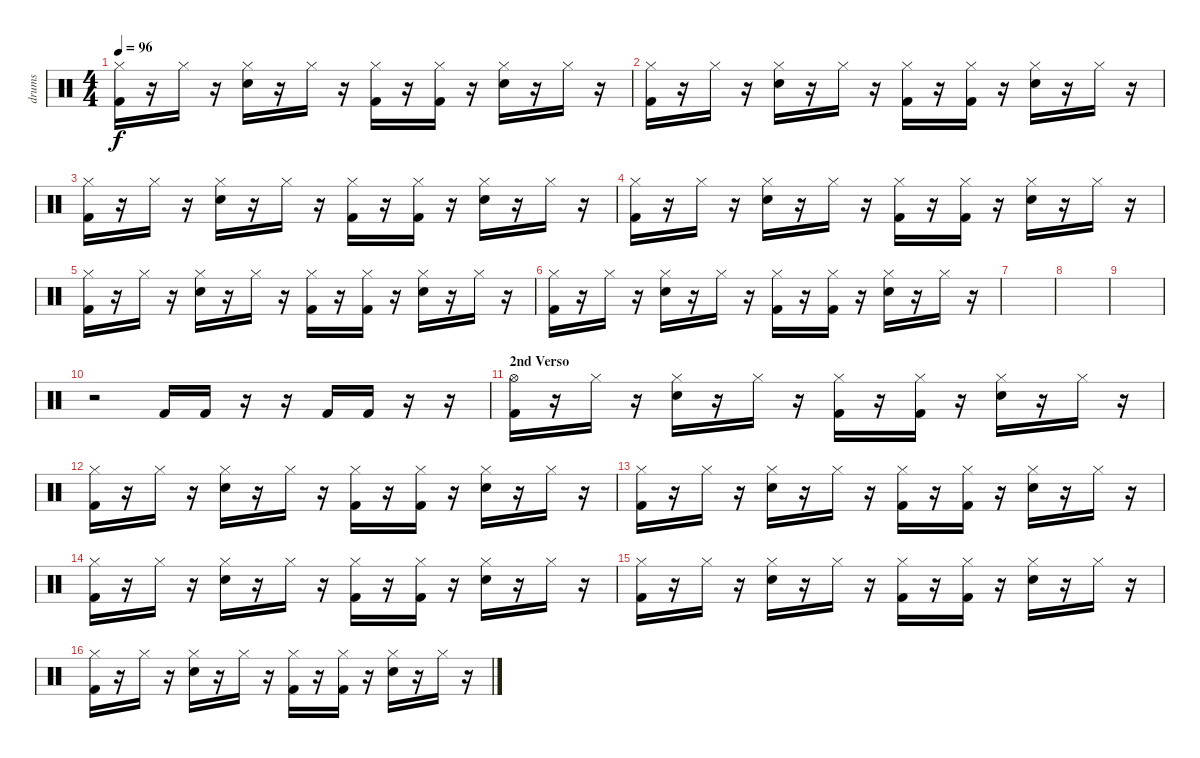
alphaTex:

\track ("drums" "drums") {instrument percussion}
\staff {score}
\articulation defaults
\ts (4 4)
\tempo 96
\clef neutral
\ks c
("Kick (hit) 2" "Hi-Hat (closed)").16{dy f} r.16 "Hi-Hat (closed)".16 r.16 ("Hi-Hat (closed)" "Electric Snare (hit)").16 r.16 "Hi-Hat (closed)".16 r.16 ("Kick (hit) 2" "Hi-Hat (closed)").16 r.16 ("Kick (hit) 2" "Hi-Hat (closed)").16 r.16 ("Hi-Hat (closed)" "Electric Snare (hit)").16 r.16 "Hi-Hat (closed)".16 r.16 |
("Kick (hit) 2" "Hi-Hat (closed)").16 r.16 "Hi-Hat (closed)".16 r.16 ("Hi-Hat (closed)" "Electric Snare (hit)").16 r.16 "Hi-Hat (closed)".16 r.16 ("Kick (hit) 2" "Hi-Hat (closed)").16 r.16 ("Kick (hit) 2" "Hi-Hat (closed)").16 r.16 ("Hi-Hat (closed)" "Electric Snare (hit)").16 r.16 "Hi-Hat (closed)".16 r.16 |
("Kick (hit) 2" "Hi-Hat (closed)").16 r.16 "Hi-Hat (closed)".16 r.16 ("Hi-Hat (closed)" "Electric Snare (hit)").16 r.16 "Hi-Hat (closed)".16 r.16 ("Kick (hit) 2" "Hi-Hat (closed)").16 r.16 ("Kick (hit) 2" "Hi-Hat (closed)").16 r.16 ("Hi-Hat (closed)" "Electric Snare (hit)").16 r.16 "Hi-Hat (closed)".16 r.16 |
("Kick (hit) 2" "Hi-Hat (closed)").16 r.16 "Hi-Hat (closed)".16 r.16 ("Hi-Hat (closed)" "Electric Snare (hit)").16 r.16 "Hi-Hat (closed)".16 r.16 ("Kick (hit) 2" "Hi-Hat (closed)").16 r.16 ("Kick (hit) 2" "Hi-Hat (closed)").16 r.16 ("Hi-Hat (closed)" "Electric Snare (hit)").16 r.16 "Hi-Hat (closed)".16 r.16 |
("Kick (hit) 2" "Hi-Hat (closed)").16 r.16 "Hi-Hat (closed)".16 r.16 ("Hi-Hat (closed)" "Electric Snare (hit)").16 r.16 "Hi-Hat (closed)".16 r.16 ("Kick (hit) 2" "Hi-Hat (closed)").16 r.16 ("Kick (hit) 2" "Hi-Hat (closed)").16 r.16 ("Hi-Hat (closed)" "Electric Snare (hit)").16 r.16 "Hi-Hat (closed)".16 r.16 |
("Kick (hit) 2" "Hi-Hat (closed)").16 r.16 "Hi-Hat (closed)".16 r.16 ("Hi-Hat (closed)" "Electric Snare (hit)").16 r.16 "Hi-Hat (closed)".16 r.16 ("Kick (hit) 2" "Hi-Hat (closed)").16 r.16 ("Kick (hit) 2" "Hi-Hat (closed)").16 r.16 ("Hi-Hat (closed)" "Electric Snare (hit)").16 r.16 "Hi-Hat (closed)".16 r.16 |
|
|
|
r.2 "Kick (hit) 2".16 "Kick (hit) 2".16 r.16 r.16 "Kick (hit) 2".16 "Kick (hit) 2".16 r.16 r.16 |
\section ("" "2nd Verso")
("Kick (hit) 2" "Hi-Hat (open)").16 r.16 "Hi-Hat (closed)".16 r.16 ("Hi-Hat (closed)" "Electric Snare (hit)").16 r.16 "Hi-Hat (closed)".16 r.16 ("Kick (hit) 2" "Hi-Hat (closed)").16 r.16 ("Kick (hit) 2" "Hi-Hat (closed)").16 r.16 ("Hi-Hat (closed)" "Electric Snare (hit)").16 r.16 "Hi-Hat (closed)".16 r.16 |
("Kick (hit) 2" "Hi-Hat (closed)").16 r.16 "Hi-Hat (closed)".16 r.16 ("Hi-Hat (closed)" "Electric Snare (hit)").16 r.16 "Hi-Hat (closed)".16 r.16 ("Kick (hit) 2" "Hi-Hat (closed)").16 r.16 ("Kick (hit) 2" "Hi-Hat (closed)").16 r.16 ("Hi-Hat (closed)" "Electric Snare (hit)").16 r.16 "Hi-Hat (closed)".16 r.16 |
("Kick (hit) 2" "Hi-Hat (closed)").16 r.16 "Hi-Hat (closed)".16 r.16 ("Hi-Hat (closed)" "Electric Snare (hit)").16 r.16 "Hi-Hat (closed)".16 r.16 ("Kick (hit) 2" "Hi-Hat (closed)").16 r.16 ("Kick (hit) 2" "Hi-Hat (closed)").16 r.16 ("Hi-Hat (closed)" "Electric Snare (hit)").16 r.16 "Hi-Hat (closed)".16 r.16 |
("Kick (hit) 2" "Hi-Hat (closed)").16 r.16 "Hi-Hat (closed)".16 r.16 ("Hi-Hat (closed)" "Electric Snare (hit)").16 r.16 "Hi-Hat (closed)".16 r.16 ("Kick (hit) 2" "Hi-Hat (closed)").16 r.16 ("Kick (hit) 2" "Hi-Hat (closed)").16 r.16 ("Hi-Hat (closed)" "Electric Snare (hit)").16 r.16 "Hi-Hat (closed)".16 r.16 |
("Kick (hit) 2" "Hi-Hat (closed)").16 r.16 "Hi-Hat (closed)".16 r.16 ("Hi-Hat (closed)" "Electric Snare (hit)").16 r.16 "Hi-Hat (closed)".16 r.16 ("Kick (hit) 2" "Hi-Hat (closed)").16 r.16 ("Kick (hit) 2" "Hi-Hat (closed)").16 r.16 ("Hi-Hat (closed)" "Electric Snare (hit)").16 r.16 "Hi-Hat (closed)".16 r.16 |
("Kick (hit) 2" "Hi-Hat (closed)").16 r.16 "Hi-Hat (closed)".16 r.16 ("Hi-Hat (closed)" "Electric Snare (hit)").16 r.16 "Hi-Hat (closed)".16 r.16 ("Kick (hit) 2" "Hi-Hat (closed)").16 r.16 ("Kick (hit) 2" "Hi-Hat (closed)").16 r.16 ("Hi-Hat (closed)" "Electric Snare (hit)").16 r.16 "Hi-Hat (closed)".16 r.16
